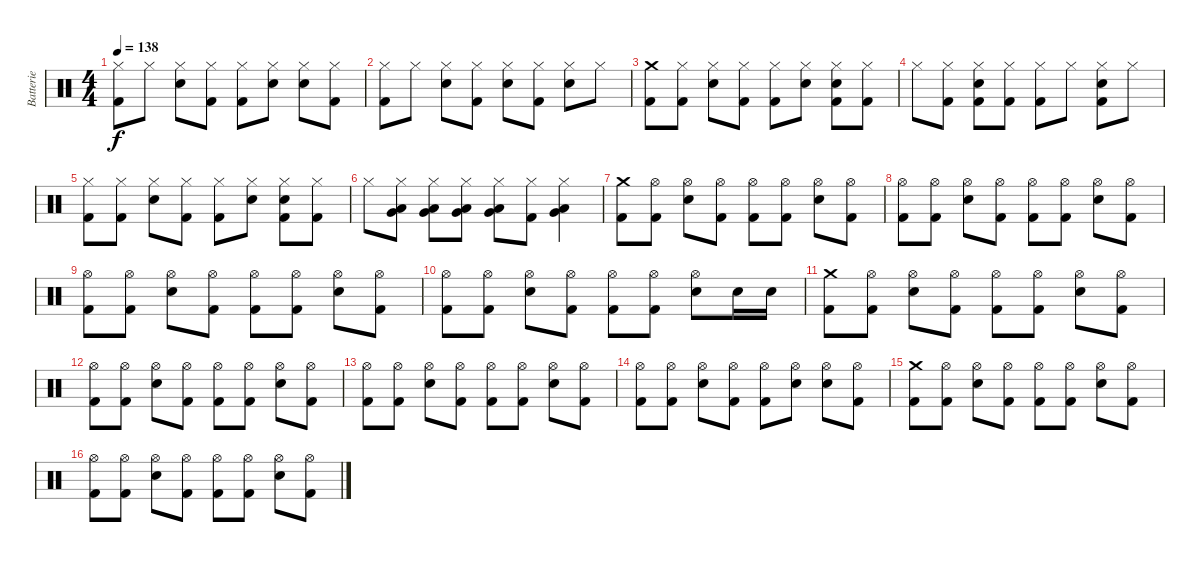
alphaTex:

\track ("Batterie" "Batterie") {instrument percussion}
\staff {score}
\articulation defaults
\ts (4 4)
\tempo 138
\clef neutral
\ks c
("Hi-Hat (closed)" "Kick (hit) 2").8{dy f} "Hi-Hat (closed)".8 ("Hi-Hat (closed)" "Electric Snare (hit)").8 ("Hi-Hat (closed)" "Kick (hit) 2").8 ("Hi-Hat (closed)" "Kick (hit) 2").8 ("Hi-Hat (closed)" "Electric Snare (hit)").8 ("Hi-Hat (closed)" "Electric Snare (hit)").8 ("Hi-Hat (closed)" "Kick (hit) 2").8 |
("Hi-Hat (closed)" "Kick (hit) 2").8 "Hi-Hat (closed)".8 ("Hi-Hat (closed)" "Electric Snare (hit)").8 ("Hi-Hat (closed)" "Kick (hit) 2").8 ("Hi-Hat (closed)" "Electric Snare (hit)").8 ("Hi-Hat (closed)" "Kick (hit) 2").8 ("Hi-Hat (closed)" "Electric Snare (hit)").8 "Hi-Hat (closed)".8 |
("Crash medium (hit)" "Kick (hit) 2").8 ("Hi-Hat (closed)" "Kick (hit) 2").8 ("Hi-Hat (closed)" "Electric Snare (hit)").8 ("Hi-Hat (closed)" "Kick (hit) 2").8 ("Hi-Hat (closed)" "Kick (hit) 2").8 ("Hi-Hat (closed)" "Electric Snare (hit)").8 ("Hi-Hat (closed)" "Electric Snare (hit)" "Kick (hit) 2").8 ("Hi-Hat (closed)" "Kick (hit) 2").8 |
"Hi-Hat (closed)".8 ("Hi-Hat (closed)" "Kick (hit) 2").8 ("Hi-Hat (closed)" "Electric Snare (hit)" "Kick (hit) 2").8 ("Hi-Hat (closed)" "Kick (hit) 2").8 ("Hi-Hat (closed)" "Kick (hit) 2").8 "Hi-Hat (closed)".8 ("Hi-Hat (closed)" "Electric Snare (hit)" "Kick (hit) 2").8 "Hi-Hat (closed)".8 |
("Hi-Hat (closed)" "Kick (hit) 2").8 ("Hi-Hat (closed)" "Kick (hit) 2").8 ("Hi-Hat (closed)" "Electric Snare (hit)").8 ("Hi-Hat (closed)" "Kick (hit) 2").8 ("Hi-Hat (closed)" "Kick (hit) 2").8 ("Hi-Hat (closed)" "Electric Snare (hit)").8 ("Hi-Hat (closed)" "Electric Snare (hit)" "Kick (hit) 2").8 ("Hi-Hat (closed)" "Kick (hit) 2").8 |
"Hi-Hat (closed)".8 ("Hi-Hat (closed)" "Low Tom (hit)" "Very Low Tom (hit)").8 ("Hi-Hat (closed)" "Low Tom (hit)" "Very Low Tom (hit)").8 ("Hi-Hat (closed)" "Very Low Tom (hit)" "Low Floor Tom (hit)").8 ("Hi-Hat (closed)" "Low Tom (hit)" "Very Low Tom (hit)").8 ("Hi-Hat (closed)" "Kick (hit) 2").8 ("Hi-Hat (closed)" "Very Low Tom (hit)" "Low Floor Tom (hit)").4 |
("Crash medium (hit)" "Kick (hit) 2").8 ("Hi-Hat (open)" "Kick (hit) 2").8 ("Hi-Hat (open)" "Electric Snare (hit)").8 ("Hi-Hat (open)" "Kick (hit) 2").8 ("Hi-Hat (open)" "Kick (hit) 2").8 ("Hi-Hat (open)" "Kick (hit) 2").8 ("Hi-Hat (open)" "Electric Snare (hit)").8 ("Hi-Hat (open)" "Kick (hit) 2").8 |
("Hi-Hat (open)" "Kick (hit) 2").8 ("Hi-Hat (open)" "Kick (hit) 2").8 ("Hi-Hat (open)" "Electric Snare (hit)").8 ("Hi-Hat (open)" "Kick (hit) 2").8 ("Hi-Hat (open)" "Kick (hit) 2").8 ("Hi-Hat (open)" "Kick (hit) 2").8 ("Hi-Hat (open)" "Electric Snare (hit)").8 ("Hi-Hat (open)" "Kick (hit) 2").8 |
("Hi-Hat (open)" "Kick (hit) 2").8 ("Hi-Hat (open)" "Kick (hit) 2").8 ("Hi-Hat (open)" "Electric Snare (hit)").8 ("Hi-Hat (open)" "Kick (hit) 2").8 ("Hi-Hat (open)" "Kick (hit) 2").8 ("Hi-Hat (open)" "Kick (hit) 2").8 ("Hi-Hat (open)" "Electric Snare (hit)").8 ("Hi-Hat (open)" "Kick (hit) 2").8 |
("Hi-Hat (open)" "Kick (hit) 2").8 ("Hi-Hat (open)" "Kick (hit) 2").8 ("Hi-Hat (open)" "Electric Snare (hit)").8 ("Hi-Hat (open)" "Kick (hit) 2").8 ("Hi-Hat (open)" "Kick (hit) 2").8 ("Hi-Hat (open)" "Kick (hit) 2").8 ("Hi-Hat (open)" "Electric Snare (hit)").8 "Electric Snare (hit)".16 "Electric Snare (hit)".16 |
("Crash medium (hit)" "Kick (hit) 2").8 ("Hi-Hat (open)" "Kick (hit) 2").8 ("Hi-Hat (open)" "Electric Snare (hit)").8 ("Hi-Hat (open)" "Kick (hit) 2").8 ("Hi-Hat (open)" "Kick (hit) 2").8 ("Hi-Hat (open)" "Kick (hit) 2").8 ("Hi-Hat (open)" "Electric Snare (hit)").8 ("Hi-Hat (open)" "Kick (hit) 2").8 |
("Hi-Hat (open)" "Kick (hit) 2").8 ("Hi-Hat (open)" "Kick (hit) 2").8 ("Hi-Hat (open)" "Electric Snare (hit)").8 ("Hi-Hat (open)" "Kick (hit) 2").8 ("Hi-Hat (open)" "Kick (hit) 2").8 ("Hi-Hat (open)" "Kick (hit) 2").8 ("Hi-Hat (open)" "Electric Snare (hit)").8 ("Hi-Hat (open)" "Kick (hit) 2").8 |
("Hi-Hat (open)" "Kick (hit) 2").8 ("Hi-Hat (open)" "Kick (hit) 2").8 ("Hi-Hat (open)" "Electric Snare (hit)").8 ("Hi-Hat (open)" "Kick (hit) 2").8 ("Hi-Hat (open)" "Kick (hit) 2").8 ("Hi-Hat (open)" "Kick (hit) 2").8 ("Hi-Hat (open)" "Electric Snare (hit)").8 ("Hi-Hat (open)" "Kick (hit) 2").8 |
("Hi-Hat (open)" "Kick (hit) 2").8 ("Hi-Hat (open)" "Kick (hit) 2").8 ("Hi-Hat (open)" "Electric Snare (hit)").8 ("Hi-Hat (open)" "Kick (hit) 2").8 ("Hi-Hat (open)" "Kick (hit) 2").8 ("Hi-Hat (open)" "Electric Snare (hit)").8 ("Hi-Hat (open)" "Electric Snare (hit)").8 ("Hi-Hat (open)" "Kick (hit) 2").8 |
("Crash medium (hit)" "Kick (hit) 2").8 ("Hi-Hat (open)" "Kick (hit) 2").8 ("Hi-Hat (open)" "Electric Snare (hit)").8 ("Hi-Hat (open)" "Kick (hit) 2").8 ("Hi-Hat (open)" "Kick (hit) 2").8 ("Hi-Hat (open)" "Kick (hit) 2").8 ("Hi-Hat (open)" "Electric Snare (hit)").8 ("Hi-Hat (open)" "Kick (hit) 2").8 |
("Hi-Hat (open)" "Kick (hit) 2").8 ("Hi-Hat (open)" "Kick (hit) 2").8 ("Hi-Hat (open)" "Electric Snare (hit)").8 ("Hi-Hat (open)" "Kick (hit) 2").8 ("Hi-Hat (open)" "Kick (hit) 2").8 ("Hi-Hat (open)" "Kick (hit) 2").8 ("Hi-Hat (open)" "Electric Snare (hit)").8 ("Hi-Hat (open)" "Kick (hit) 2").8
